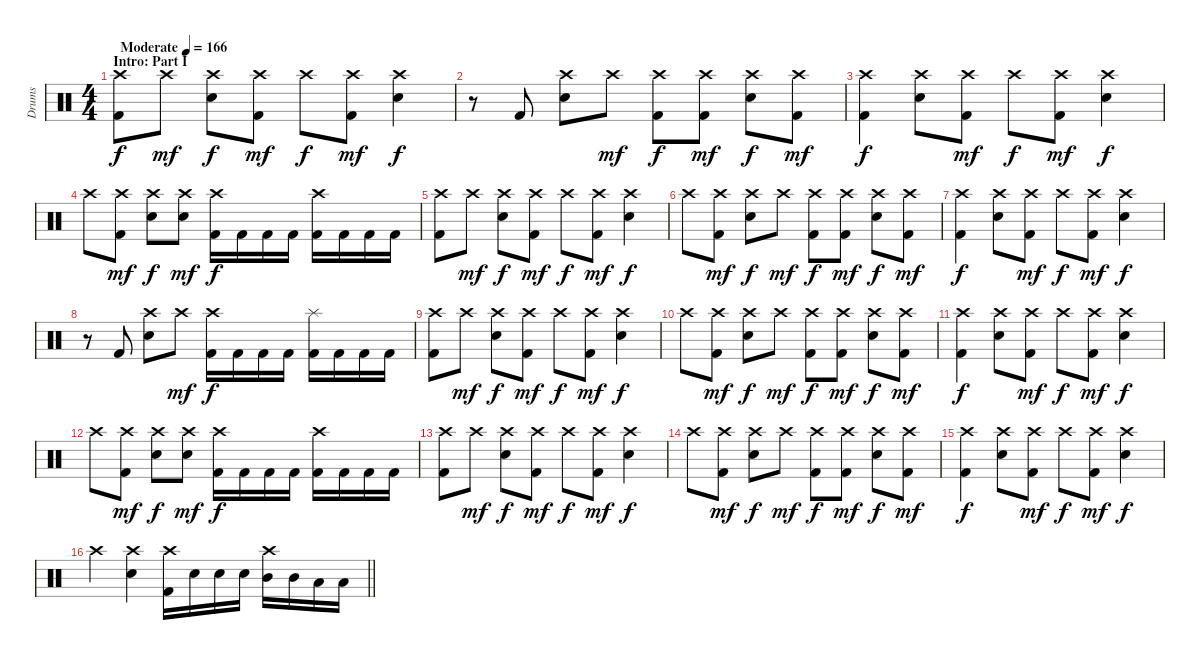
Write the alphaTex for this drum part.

\track ("Drums" "Drums") {instrument percussion}
\staff {score}
\articulation defaults
\ts (4 4)
\section ("" "Intro: Part I")
\tempo (166 "Moderate")
\clef neutral
\ks c
("Crash high (hit)" "Kick (hit) 2").8{dy f} "Crash high (hit)".8{dy mf} ("Crash high (hit)" "Electric Snare (hit)").8{dy f} ("Crash high (hit)" "Kick (hit) 2").8{dy mf} "Crash high (hit)".8{dy f} ("Crash high (hit)" "Kick (hit) 2").8{dy mf} ("Crash high (hit)" "Electric Snare (hit)").4{dy f} |
r.8 "Kick (hit) 2".8 ("Crash high (hit)" "Electric Snare (hit)").8 "Crash high (hit)".8{dy mf} ("Crash high (hit)" "Kick (hit) 2").8{dy f} ("Crash high (hit)" "Kick (hit) 2").8{dy mf} ("Crash high (hit)" "Electric Snare (hit)").8{dy f} ("Crash high (hit)" "Kick (hit) 2").8{dy mf} |
("Crash high (hit)" "Kick (hit) 2").4{dy f} ("Crash high (hit)" "Electric Snare (hit)").8 ("Crash high (hit)" "Kick (hit) 2").8{dy mf} "Crash high (hit)".8{dy f} ("Crash high (hit)" "Kick (hit) 2").8{dy mf} ("Crash high (hit)" "Electric Snare (hit)").4{dy f} |
"Crash high (hit)".8 ("Crash high (hit)" "Kick (hit) 2").8{dy mf} ("Crash high (hit)" "Electric Snare (hit)").8{dy f} ("Crash high (hit)" "Electric Snare (hit)").8{dy mf} ("Crash high (hit)" "Kick (hit) 2").16{dy f} "Kick (hit) 2".16 "Kick (hit) 2".16 "Kick (hit) 2".16 ("Crash high (hit)" "Kick (hit) 2").16 "Kick (hit) 2".16 "Kick (hit) 2".16 "Kick (hit) 2".16 |
("Crash high (hit)" "Kick (hit) 2").8 "Crash high (hit)".8{dy mf} ("Crash high (hit)" "Electric Snare (hit)").8{dy f} ("Crash high (hit)" "Kick (hit) 2").8{dy mf} "Crash high (hit)".8{dy f} ("Crash high (hit)" "Kick (hit) 2").8{dy mf} ("Crash high (hit)" "Electric Snare (hit)").4{dy f} |
"Crash high (hit)".8 ("Crash high (hit)" "Kick (hit) 2").8{dy mf} ("Crash high (hit)" "Electric Snare (hit)").8{dy f} "Crash high (hit)".8{dy mf} ("Crash high (hit)" "Kick (hit) 2").8{dy f} ("Crash high (hit)" "Kick (hit) 2").8{dy mf} ("Crash high (hit)" "Electric Snare (hit)").8{dy f} ("Crash high (hit)" "Kick (hit) 2").8{dy mf} |
("Crash high (hit)" "Kick (hit) 2").4{dy f} ("Crash high (hit)" "Electric Snare (hit)").8 ("Crash high (hit)" "Kick (hit) 2").8{dy mf} "Crash high (hit)".8{dy f} ("Crash high (hit)" "Kick (hit) 2").8{dy mf} ("Crash high (hit)" "Electric Snare (hit)").4{dy f} |
r.8 "Kick (hit) 2".8 ("Crash high (hit)" "Electric Snare (hit)").8 "Crash high (hit)".8{dy mf} ("Crash high (hit)" "Kick (hit) 2").16{dy f} "Kick (hit) 2".16 "Kick (hit) 2".16 "Kick (hit) 2".16 ("Splash (hit)" "Kick (hit) 2").16 "Kick (hit) 2".16 "Kick (hit) 2".16 "Kick (hit) 2".16 |
("Crash high (hit)" "Kick (hit) 2").8 "Crash high (hit)".8{dy mf} ("Crash high (hit)" "Electric Snare (hit)").8{dy f} ("Crash high (hit)" "Kick (hit) 2").8{dy mf} "Crash high (hit)".8{dy f} ("Crash high (hit)" "Kick (hit) 2").8{dy mf} ("Crash high (hit)" "Electric Snare (hit)").4{dy f} |
"Crash high (hit)".8 ("Crash high (hit)" "Kick (hit) 2").8{dy mf} ("Crash high (hit)" "Electric Snare (hit)").8{dy f} "Crash high (hit)".8{dy mf} ("Crash high (hit)" "Kick (hit) 2").8{dy f} ("Crash high (hit)" "Kick (hit) 2").8{dy mf} ("Crash high (hit)" "Electric Snare (hit)").8{dy f} ("Crash high (hit)" "Kick (hit) 2").8{dy mf} |
("Crash high (hit)" "Kick (hit) 2").4{dy f} ("Crash high (hit)" "Electric Snare (hit)").8 ("Crash high (hit)" "Kick (hit) 2").8{dy mf} "Crash high (hit)".8{dy f} ("Crash high (hit)" "Kick (hit) 2").8{dy mf} ("Crash high (hit)" "Electric Snare (hit)").4{dy f} |
"Crash high (hit)".8 ("Crash high (hit)" "Kick (hit) 2").8{dy mf} ("Crash high (hit)" "Electric Snare (hit)").8{dy f} ("Crash high (hit)" "Electric Snare (hit)").8{dy mf} ("Crash high (hit)" "Kick (hit) 2").16{dy f} "Kick (hit) 2".16 "Kick (hit) 2".16 "Kick (hit) 2".16 ("Crash high (hit)" "Kick (hit) 2").16 "Kick (hit) 2".16 "Kick (hit) 2".16 "Kick (hit) 2".16 |
("Crash high (hit)" "Kick (hit) 2").8 "Crash high (hit)".8{dy mf} ("Crash high (hit)" "Electric Snare (hit)").8{dy f} ("Crash high (hit)" "Kick (hit) 2").8{dy mf} "Crash high (hit)".8{dy f} ("Crash high (hit)" "Kick (hit) 2").8{dy mf} ("Crash high (hit)" "Electric Snare (hit)").4{dy f} |
"Crash high (hit)".8 ("Crash high (hit)" "Kick (hit) 2").8{dy mf} ("Crash high (hit)" "Electric Snare (hit)").8{dy f} "Crash high (hit)".8{dy mf} ("Crash high (hit)" "Kick (hit) 2").8{dy f} ("Crash high (hit)" "Kick (hit) 2").8{dy mf} ("Crash high (hit)" "Electric Snare (hit)").8{dy f} ("Crash high (hit)" "Kick (hit) 2").8{dy mf} |
("Crash high (hit)" "Kick (hit) 2").4{dy f} ("Crash high (hit)" "Electric Snare (hit)").8 ("Crash high (hit)" "Kick (hit) 2").8{dy mf} "Crash high (hit)".8{dy f} ("Crash high (hit)" "Kick (hit) 2").8{dy mf} ("Crash high (hit)" "Electric Snare (hit)").4{dy f} |
\barLineRight lightlight "Crash high (hit)".4
("Crash high (hit)" "Electric Snare (hit)").4 ("Crash high (hit)" "Kick (hit) 2").16 "Electric Snare (hit)".16 "Electric Snare (hit)".16 "Electric Snare (hit)".16 ("Crash high (hit)" "Mid Tom (hit)").16 "Mid Tom (hit)".16 "Low Tom (hit)".16 "Low Tom (hit)".16
